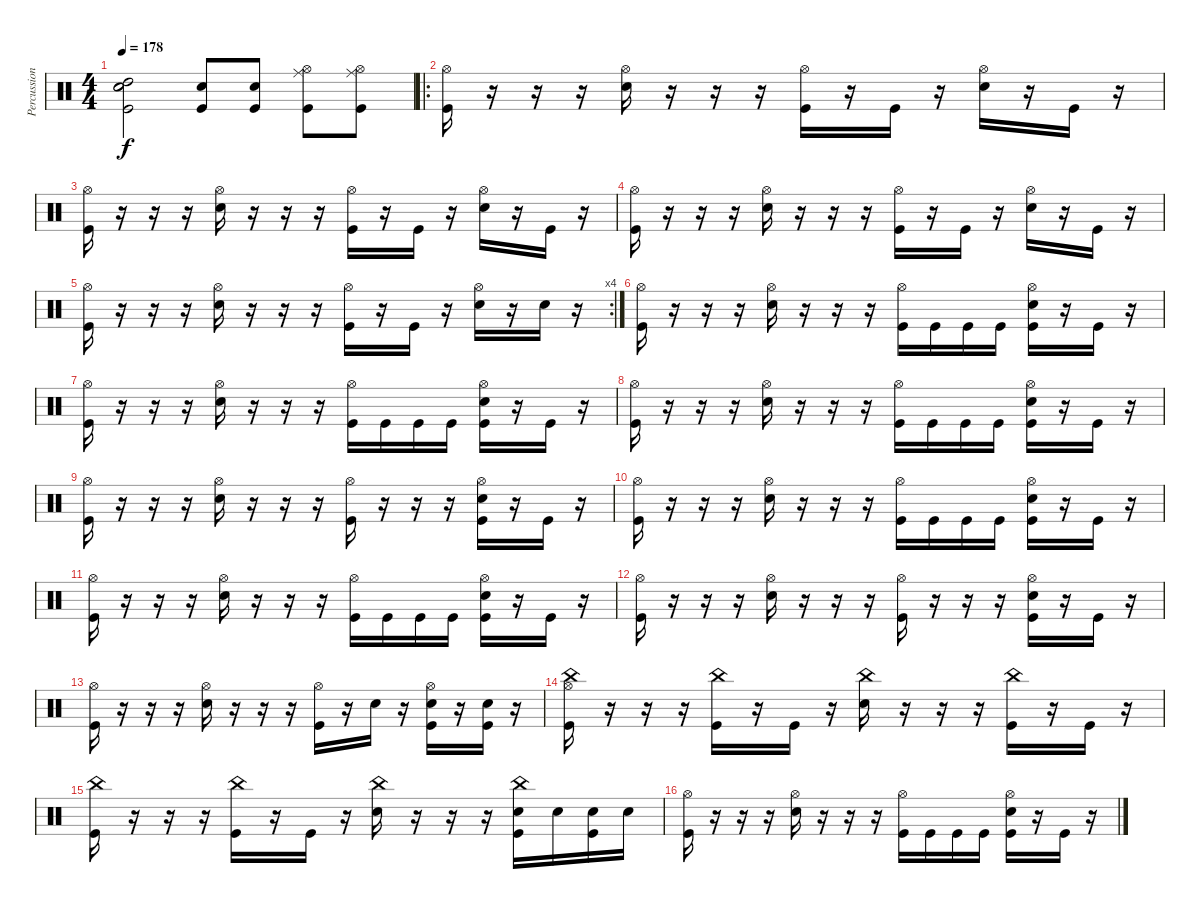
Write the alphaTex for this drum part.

\track ("Percussions" "Percussion") {instrument percussion}
\staff {score}
\articulation defaults
\ts (4 4)
\tempo 178
\clef neutral
\ks c
("High Tom (hit)" "Snare (hit) 2" "Kick (hit)" "Electric Snare (hit)").2{dy f} ("Electric Snare (hit)" "Kick (hit)").8 ("Electric Snare (hit)" "Kick (hit)").8 ("Hi-Hat (open)" "Ride (middle)" "Kick (hit)").8 ("Hi-Hat (open)" "Ride (middle)" "Kick (hit)").8 |
\ro
("Hi-Hat (open)" "Kick (hit)").16 r.16 r.16 r.16 ("Hi-Hat (open)" "Snare (hit) 2").16 r.16 r.16 r.16 ("Hi-Hat (open)" "Kick (hit)").16 r.16 "Kick (hit)".16 r.16 ("Hi-Hat (open)" "Snare (hit) 2").16 r.16 "Kick (hit)".16 r.16 |
("Hi-Hat (open)" "Kick (hit)").16 r.16 r.16 r.16 ("Hi-Hat (open)" "Snare (hit) 2").16 r.16 r.16 r.16 ("Hi-Hat (open)" "Kick (hit)").16 r.16 "Kick (hit)".16 r.16 ("Hi-Hat (open)" "Snare (hit) 2").16 r.16 "Kick (hit)".16 r.16 |
("Hi-Hat (open)" "Kick (hit)").16 r.16 r.16 r.16 ("Hi-Hat (open)" "Snare (hit) 2").16 r.16 r.16 r.16 ("Hi-Hat (open)" "Kick (hit)").16 r.16 "Kick (hit)".16 r.16 ("Hi-Hat (open)" "Snare (hit) 2").16 r.16 "Kick (hit)".16 r.16 |
\rc 4
("Hi-Hat (open)" "Kick (hit)").16 r.16 r.16 r.16 ("Hi-Hat (open)" "Snare (hit) 2").16 r.16 r.16 r.16 ("Hi-Hat (open)" "Kick (hit)").16 r.16 "Kick (hit)".16 r.16 ("Hi-Hat (open)" "Snare (hit) 2").16 r.16 "Snare (hit) 2".16 r.16 |
("Hi-Hat (open)" "Kick (hit)").16 r.16 r.16 r.16 ("Hi-Hat (open)" "Snare (hit) 2").16 r.16 r.16 r.16 ("Hi-Hat (open)" "Kick (hit)").16 "Kick (hit)".16 "Kick (hit)".16 "Kick (hit)".16 ("Hi-Hat (open)" "Snare (hit) 2" "Kick (hit)").16 r.16 "Kick (hit)".16 r.16 |
("Hi-Hat (open)" "Kick (hit)").16 r.16 r.16 r.16 ("Hi-Hat (open)" "Snare (hit) 2").16 r.16 r.16 r.16 ("Hi-Hat (open)" "Kick (hit)").16 "Kick (hit)".16 "Kick (hit)".16 "Kick (hit)".16 ("Hi-Hat (open)" "Snare (hit) 2" "Kick (hit)").16 r.16 "Kick (hit)".16 r.16 |
("Hi-Hat (open)" "Kick (hit)").16 r.16 r.16 r.16 ("Hi-Hat (open)" "Snare (hit) 2").16 r.16 r.16 r.16 ("Hi-Hat (open)" "Kick (hit)").16 "Kick (hit)".16 "Kick (hit)".16 "Kick (hit)".16 ("Hi-Hat (open)" "Snare (hit) 2" "Kick (hit)").16 r.16 "Kick (hit)".16 r.16 |
("Hi-Hat (open)" "Kick (hit)").16 r.16 r.16 r.16 ("Hi-Hat (open)" "Snare (hit) 2").16 r.16 r.16 r.16 ("Hi-Hat (open)" "Kick (hit)").16 r.16 r.16 r.16 ("Hi-Hat (open)" "Snare (hit) 2" "Kick (hit)").16 r.16 "Kick (hit)".16 r.16 |
("Hi-Hat (open)" "Kick (hit)").16 r.16 r.16 r.16 ("Hi-Hat (open)" "Snare (hit) 2").16 r.16 r.16 r.16 ("Hi-Hat (open)" "Kick (hit)").16 "Kick (hit)".16 "Kick (hit)".16 "Kick (hit)".16 ("Hi-Hat (open)" "Snare (hit) 2" "Kick (hit)").16 r.16 "Kick (hit)".16 r.16 |
("Hi-Hat (open)" "Kick (hit)").16 r.16 r.16 r.16 ("Hi-Hat (open)" "Snare (hit) 2").16 r.16 r.16 r.16 ("Hi-Hat (open)" "Kick (hit)").16 "Kick (hit)".16 "Kick (hit)".16 "Kick (hit)".16 ("Hi-Hat (open)" "Snare (hit) 2" "Kick (hit)").16 r.16 "Kick (hit)".16 r.16 |
("Hi-Hat (open)" "Kick (hit)").16 r.16 r.16 r.16 ("Hi-Hat (open)" "Snare (hit) 2").16 r.16 r.16 r.16 ("Hi-Hat (open)" "Kick (hit)").16 r.16 r.16 r.16 ("Hi-Hat (open)" "Snare (hit) 2" "Kick (hit)").16 r.16 "Kick (hit)".16 r.16 |
("Hi-Hat (open)" "Kick (hit)").16 r.16 r.16 r.16 ("Hi-Hat (open)" "Snare (hit) 2").16 r.16 r.16 r.16 ("Hi-Hat (open)" "Kick (hit)").16 r.16 "Snare (hit) 2".16 r.16 ("Hi-Hat (open)" "Snare (hit) 2" "Kick (hit)").16 r.16 ("Snare (hit) 2" "Kick (hit)").16 r.16 |
("China (hit)" "Hi-Hat (open)" "Kick (hit)").16 r.16 r.16 r.16 ("China (hit)" "Kick (hit)").16 r.16 "Kick (hit)".16 r.16 ("China (hit)" "Snare (hit) 2").16 r.16 r.16 r.16 ("China (hit)" "Kick (hit)").16 r.16 "Kick (hit)".16 r.16 |
("China (hit)" "Kick (hit)").16 r.16 r.16 r.16 ("China (hit)" "Kick (hit)").16 r.16 "Kick (hit)".16 r.16 ("China (hit)" "Snare (hit) 2").16 r.16 r.16 r.16 ("China (hit)" "Snare (hit) 2" "Kick (hit)").16 "Snare (hit) 2".16 ("Snare (hit) 2" "Kick (hit)").16 "Snare (hit) 2".16 |
("Hi-Hat (open)" "Kick (hit)").16 r.16 r.16 r.16 ("Hi-Hat (open)" "Snare (hit) 2").16 r.16 r.16 r.16 ("Hi-Hat (open)" "Kick (hit)").16 "Kick (hit)".16 "Kick (hit)".16 "Kick (hit)".16 ("Hi-Hat (open)" "Snare (hit) 2" "Kick (hit)").16 r.16 "Kick (hit)".16 r.16
